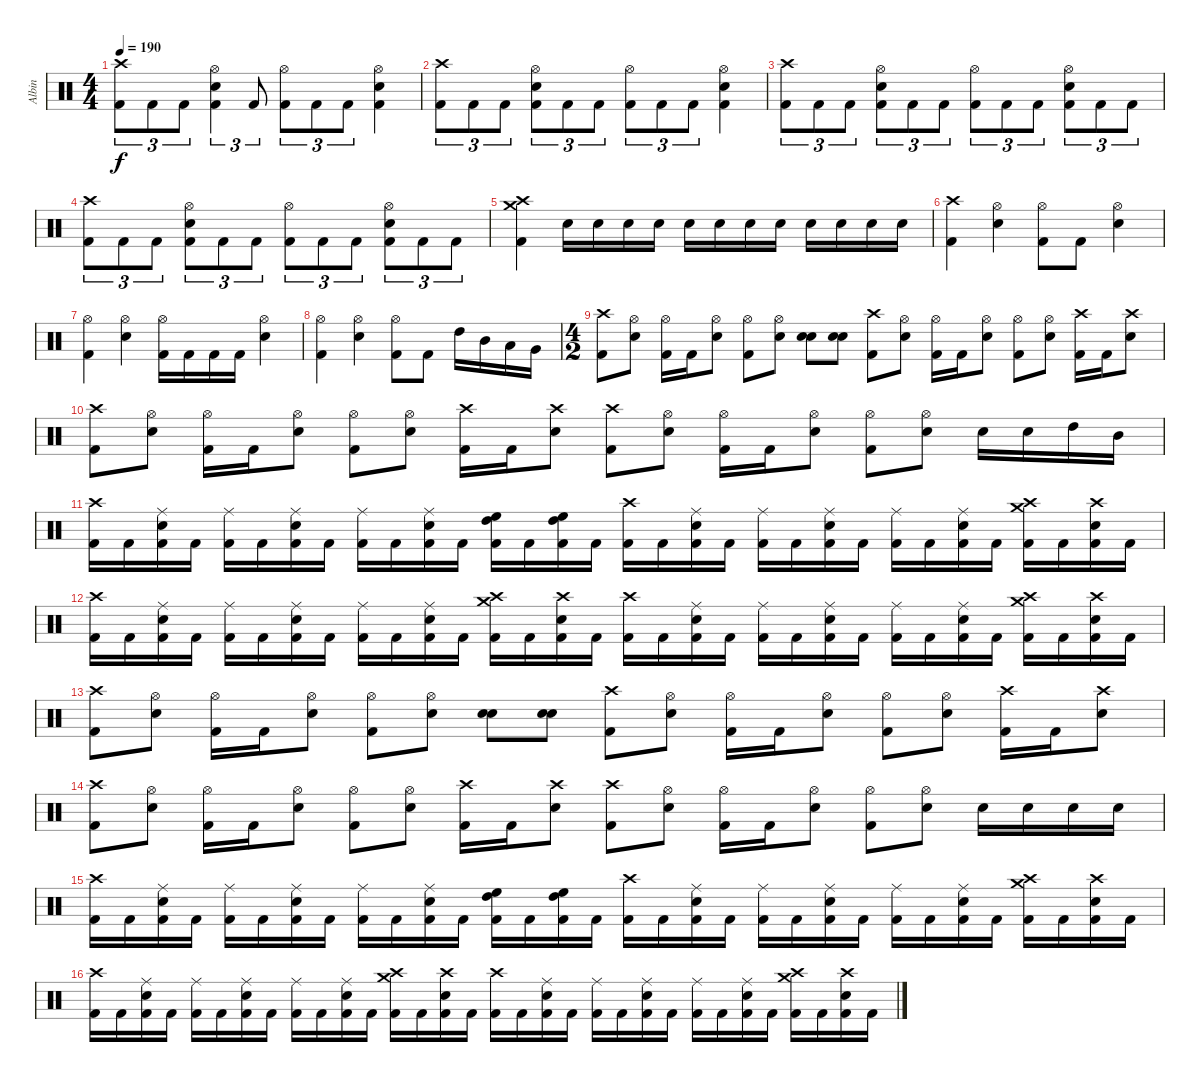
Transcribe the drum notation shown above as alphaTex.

\track ("Albin" "Albin") {instrument percussion}
\staff {score}
\articulation defaults
\ts (4 4)
\tempo 190
\clef neutral
\ks c
("Kick (hit) 2" "Crash high (hit)").8{tu (3 2) dy f} "Kick (hit) 2".8{tu (3 2)} "Kick (hit) 2".8{tu (3 2)} ("Kick (hit) 2" "Electric Snare (hit)" "Hi-Hat (open)").4{tu (3 2)} "Kick (hit) 2".8{tu (3 2)} ("Kick (hit) 2" "Hi-Hat (open)").8{tu (3 2)} "Kick (hit) 2".8{tu (3 2)} "Kick (hit) 2".8{tu (3 2)} ("Kick (hit) 2" "Electric Snare (hit)" "Hi-Hat (open)").4 |
("Kick (hit) 2" "Crash high (hit)").8{tu (3 2)} "Kick (hit) 2".8{tu (3 2)} "Kick (hit) 2".8{tu (3 2)} ("Kick (hit) 2" "Electric Snare (hit)" "Hi-Hat (open)").8{tu (3 2)} "Kick (hit) 2".8{tu (3 2)} "Kick (hit) 2".8{tu (3 2)} ("Kick (hit) 2" "Hi-Hat (open)").8{tu (3 2)} "Kick (hit) 2".8{tu (3 2)} "Kick (hit) 2".8{tu (3 2)} ("Kick (hit) 2" "Electric Snare (hit)" "Hi-Hat (open)").4 |
("Kick (hit) 2" "Crash high (hit)").8{tu (3 2)} "Kick (hit) 2".8{tu (3 2)} "Kick (hit) 2".8{tu (3 2)} ("Kick (hit) 2" "Electric Snare (hit)" "Hi-Hat (open)").8{tu (3 2)} "Kick (hit) 2".8{tu (3 2)} "Kick (hit) 2".8{tu (3 2)} ("Kick (hit) 2" "Hi-Hat (open)").8{tu (3 2)} "Kick (hit) 2".8{tu (3 2)} "Kick (hit) 2".8{tu (3 2)} ("Kick (hit) 2" "Electric Snare (hit)" "Hi-Hat (open)").8{tu (3 2)} "Kick (hit) 2".8{tu (3 2)} "Kick (hit) 2".8{tu (3 2)} |
("Kick (hit) 2" "Crash high (hit)").8{tu (3 2)} "Kick (hit) 2".8{tu (3 2)} "Kick (hit) 2".8{tu (3 2)} ("Kick (hit) 2" "Electric Snare (hit)" "Hi-Hat (open)").8{tu (3 2)} "Kick (hit) 2".8{tu (3 2)} "Kick (hit) 2".8{tu (3 2)} ("Kick (hit) 2" "Hi-Hat (open)").8{tu (3 2)} "Kick (hit) 2".8{tu (3 2)} "Kick (hit) 2".8{tu (3 2)} ("Kick (hit) 2" "Electric Snare (hit)" "Hi-Hat (open)").8{tu (3 2)} "Kick (hit) 2".8{tu (3 2)} "Kick (hit) 2".8{tu (3 2)} |
("Kick (hit) 2" "Crash high (hit)" "Crash medium (hit)").4 "Electric Snare (hit)".16 "Electric Snare (hit)".16 "Electric Snare (hit)".16 "Electric Snare (hit)".16 "Electric Snare (hit)".16 "Electric Snare (hit)".16 "Electric Snare (hit)".16 "Electric Snare (hit)".16 "Electric Snare (hit)".16 "Electric Snare (hit)".16 "Electric Snare (hit)".16 "Electric Snare (hit)".16 |
("Kick (hit) 2" "Crash high (hit)").4 ("Electric Snare (hit)" "Hi-Hat (open)").4 ("Kick (hit) 2" "Hi-Hat (open)").8 "Kick (hit) 2".8 ("Electric Snare (hit)" "Hi-Hat (open)").4 |
("Kick (hit) 2" "Hi-Hat (open)").4 ("Electric Snare (hit)" "Hi-Hat (open)").4 ("Kick (hit) 2" "Hi-Hat (open)").16 "Kick (hit) 2".16 "Kick (hit) 2".16 "Kick (hit) 2".16 ("Electric Snare (hit)" "Hi-Hat (open)").4 |
("Kick (hit) 2" "Hi-Hat (open)").4 ("Electric Snare (hit)" "Hi-Hat (open)").4 ("Kick (hit) 2" "Hi-Hat (open)").8 "Kick (hit) 2".8 "High Tom (hit)".16 "Mid Tom (hit)".16 "Low Tom (hit)".16 "Very Low Tom (hit)".16 |
\ts (4 2)
("Kick (hit) 2" "Crash high (hit)").8 ("Electric Snare (hit)" "Hi-Hat (open)").8 ("Kick (hit) 2" "Hi-Hat (open)").16 "Kick (hit) 2".16 ("Electric Snare (hit)" "Hi-Hat (open)").8 ("Kick (hit) 2" "Hi-Hat (open)").8 ("Electric Snare (hit)" "Hi-Hat (open)").8 ("Electric Snare (hit)" "Electric Snare (hit)").8 ("Electric Snare (hit)" "Electric Snare (hit)").8 ("Kick (hit) 2" "Crash high (hit)").8 ("Electric Snare (hit)" "Hi-Hat (open)").8 ("Kick (hit) 2" "Hi-Hat (open)").16 "Kick (hit) 2".16 ("Electric Snare (hit)" "Hi-Hat (open)").8 ("Kick (hit) 2" "Hi-Hat (open)").8 ("Electric Snare (hit)" "Hi-Hat (open)").8 ("Kick (hit) 2" "Crash high (hit)").16 "Kick (hit) 2".16 ("Electric Snare (hit)" "Crash high (hit)").8 |
("Kick (hit) 2" "Crash high (hit)").8 ("Electric Snare (hit)" "Hi-Hat (open)").8 ("Kick (hit) 2" "Hi-Hat (open)").16 "Kick (hit) 2".16 ("Electric Snare (hit)" "Hi-Hat (open)").8 ("Kick (hit) 2" "Hi-Hat (open)").8 ("Electric Snare (hit)" "Hi-Hat (open)").8 ("Kick (hit) 2" "Crash high (hit)").16 "Kick (hit) 2".16 ("Electric Snare (hit)" "Crash high (hit)").8 ("Kick (hit) 2" "Crash high (hit)").8 ("Electric Snare (hit)" "Hi-Hat (open)").8 ("Kick (hit) 2" "Hi-Hat (open)").16 "Kick (hit) 2".16 ("Electric Snare (hit)" "Hi-Hat (open)").8 ("Kick (hit) 2" "Hi-Hat (open)").8 ("Electric Snare (hit)" "Hi-Hat (open)").8 "Electric Snare (hit)".16 "Electric Snare (hit)".16 "High Tom (hit)".16 "Mid Tom (hit)".16 |
("Kick (hit) 2" "Crash high (hit)").16 "Kick (hit) 2".16 ("Kick (hit) 2" "Electric Snare (hit)" "Ride (middle)").16 "Kick (hit) 2".16 ("Kick (hit) 2" "Ride (middle)").16 "Kick (hit) 2".16 ("Kick (hit) 2" "Electric Snare (hit)" "Ride (middle)").16 "Kick (hit) 2".16 ("Kick (hit) 2" "Ride (middle)").16 "Kick (hit) 2".16 ("Kick (hit) 2" "Electric Snare (hit)" "Ride (middle)").16 "Kick (hit) 2".16 ("Kick (hit) 2" "High Tom (hit)" "High Floor Tom (hit)").16 "Kick (hit) 2".16 ("Kick (hit) 2" "High Tom (hit)" "High Floor Tom (hit)").16 "Kick (hit) 2".16 ("Kick (hit) 2" "Crash high (hit)").16 "Kick (hit) 2".16 ("Kick (hit) 2" "Electric Snare (hit)" "Ride (middle)").16 "Kick (hit) 2".16 ("Kick (hit) 2" "Ride (middle)").16 "Kick (hit) 2".16 ("Kick (hit) 2" "Electric Snare (hit)" "Ride (middle)").16 "Kick (hit) 2".16 ("Kick (hit) 2" "Ride (middle)").16 "Kick (hit) 2".16 ("Kick (hit) 2" "Electric Snare (hit)" "Ride (middle)").16 "Kick (hit) 2".16 ("Kick (hit) 2" "Crash high (hit)" "Crash medium (hit)").16 "Kick (hit) 2".16 ("Kick (hit) 2" "Electric Snare (hit)" "Crash high (hit)").16 "Kick (hit) 2".16 |
("Kick (hit) 2" "Crash high (hit)").16 "Kick (hit) 2".16 ("Kick (hit) 2" "Electric Snare (hit)" "Ride (middle)").16 "Kick (hit) 2".16 ("Kick (hit) 2" "Ride (middle)").16 "Kick (hit) 2".16 ("Kick (hit) 2" "Electric Snare (hit)" "Ride (middle)").16 "Kick (hit) 2".16 ("Kick (hit) 2" "Ride (middle)").16 "Kick (hit) 2".16 ("Kick (hit) 2" "Electric Snare (hit)" "Ride (middle)").16 "Kick (hit) 2".16 ("Kick (hit) 2" "Crash high (hit)" "Crash medium (hit)").16 "Kick (hit) 2".16 ("Kick (hit) 2" "Electric Snare (hit)" "Crash high (hit)").16 "Kick (hit) 2".16 ("Kick (hit) 2" "Crash high (hit)").16 "Kick (hit) 2".16 ("Kick (hit) 2" "Electric Snare (hit)" "Ride (middle)").16 "Kick (hit) 2".16 ("Kick (hit) 2" "Ride (middle)").16 "Kick (hit) 2".16 ("Kick (hit) 2" "Electric Snare (hit)" "Ride (middle)").16 "Kick (hit) 2".16 ("Kick (hit) 2" "Ride (middle)").16 "Kick (hit) 2".16 ("Kick (hit) 2" "Electric Snare (hit)" "Ride (middle)").16 "Kick (hit) 2".16 ("Kick (hit) 2" "Crash high (hit)" "Crash medium (hit)").16 "Kick (hit) 2".16 ("Kick (hit) 2" "Electric Snare (hit)" "Crash high (hit)").16 "Kick (hit) 2".16 |
("Kick (hit) 2" "Crash high (hit)").8 ("Electric Snare (hit)" "Hi-Hat (open)").8 ("Kick (hit) 2" "Hi-Hat (open)").16 "Kick (hit) 2".16 ("Electric Snare (hit)" "Hi-Hat (open)").8 ("Kick (hit) 2" "Hi-Hat (open)").8 ("Electric Snare (hit)" "Hi-Hat (open)").8 ("Electric Snare (hit)" "Electric Snare (hit)").8 ("Electric Snare (hit)" "Electric Snare (hit)").8 ("Kick (hit) 2" "Crash high (hit)").8 ("Electric Snare (hit)" "Hi-Hat (open)").8 ("Kick (hit) 2" "Hi-Hat (open)").16 "Kick (hit) 2".16 ("Electric Snare (hit)" "Hi-Hat (open)").8 ("Kick (hit) 2" "Hi-Hat (open)").8 ("Electric Snare (hit)" "Hi-Hat (open)").8 ("Kick (hit) 2" "Crash high (hit)").16 "Kick (hit) 2".16 ("Electric Snare (hit)" "Crash high (hit)").8 |
("Kick (hit) 2" "Crash high (hit)").8 ("Electric Snare (hit)" "Hi-Hat (open)").8 ("Kick (hit) 2" "Hi-Hat (open)").16 "Kick (hit) 2".16 ("Electric Snare (hit)" "Hi-Hat (open)").8 ("Kick (hit) 2" "Hi-Hat (open)").8 ("Electric Snare (hit)" "Hi-Hat (open)").8 ("Kick (hit) 2" "Crash high (hit)").16 "Kick (hit) 2".16 ("Electric Snare (hit)" "Crash high (hit)").8 ("Kick (hit) 2" "Crash high (hit)").8 ("Electric Snare (hit)" "Hi-Hat (open)").8 ("Kick (hit) 2" "Hi-Hat (open)").16 "Kick (hit) 2".16 ("Electric Snare (hit)" "Hi-Hat (open)").8 ("Kick (hit) 2" "Hi-Hat (open)").8 ("Electric Snare (hit)" "Hi-Hat (open)").8 "Electric Snare (hit)".16 "Electric Snare (hit)".16 "Electric Snare (hit)".16 "Electric Snare (hit)".16 |
("Kick (hit) 2" "Crash high (hit)").16 "Kick (hit) 2".16 ("Kick (hit) 2" "Electric Snare (hit)" "Ride (middle)").16 "Kick (hit) 2".16 ("Kick (hit) 2" "Ride (middle)").16 "Kick (hit) 2".16 ("Kick (hit) 2" "Electric Snare (hit)" "Ride (middle)").16 "Kick (hit) 2".16 ("Kick (hit) 2" "Ride (middle)").16 "Kick (hit) 2".16 ("Kick (hit) 2" "Electric Snare (hit)" "Ride (middle)").16 "Kick (hit) 2".16 ("Kick (hit) 2" "High Tom (hit)" "High Floor Tom (hit)").16 "Kick (hit) 2".16 ("Kick (hit) 2" "High Tom (hit)" "High Floor Tom (hit)").16 "Kick (hit) 2".16 ("Kick (hit) 2" "Crash high (hit)").16 "Kick (hit) 2".16 ("Kick (hit) 2" "Electric Snare (hit)" "Ride (middle)").16 "Kick (hit) 2".16 ("Kick (hit) 2" "Ride (middle)").16 "Kick (hit) 2".16 ("Kick (hit) 2" "Electric Snare (hit)" "Ride (middle)").16 "Kick (hit) 2".16 ("Kick (hit) 2" "Ride (middle)").16 "Kick (hit) 2".16 ("Kick (hit) 2" "Electric Snare (hit)" "Ride (middle)").16 "Kick (hit) 2".16 ("Kick (hit) 2" "Crash high (hit)" "Crash medium (hit)").16 "Kick (hit) 2".16 ("Kick (hit) 2" "Electric Snare (hit)" "Crash high (hit)").16 "Kick (hit) 2".16 |
("Kick (hit) 2" "Crash high (hit)").16 "Kick (hit) 2".16 ("Kick (hit) 2" "Electric Snare (hit)" "Ride (middle)").16 "Kick (hit) 2".16 ("Kick (hit) 2" "Ride (middle)").16 "Kick (hit) 2".16 ("Kick (hit) 2" "Electric Snare (hit)" "Ride (middle)").16 "Kick (hit) 2".16 ("Kick (hit) 2" "Ride (middle)").16 "Kick (hit) 2".16 ("Kick (hit) 2" "Electric Snare (hit)" "Ride (middle)").16 "Kick (hit) 2".16 ("Kick (hit) 2" "Crash high (hit)" "Crash medium (hit)").16 "Kick (hit) 2".16 ("Kick (hit) 2" "Electric Snare (hit)" "Crash high (hit)").16 "Kick (hit) 2".16 ("Kick (hit) 2" "Crash high (hit)").16 "Kick (hit) 2".16 ("Kick (hit) 2" "Electric Snare (hit)" "Ride (middle)").16 "Kick (hit) 2".16 ("Kick (hit) 2" "Ride (middle)").16 "Kick (hit) 2".16 ("Kick (hit) 2" "Electric Snare (hit)" "Ride (middle)").16 "Kick (hit) 2".16 ("Kick (hit) 2" "Ride (middle)").16 "Kick (hit) 2".16 ("Kick (hit) 2" "Electric Snare (hit)" "Ride (middle)").16 "Kick (hit) 2".16 ("Kick (hit) 2" "Crash high (hit)" "Crash medium (hit)").16 "Kick (hit) 2".16 ("Kick (hit) 2" "Electric Snare (hit)" "Crash high (hit)").16 "Kick (hit) 2".16
